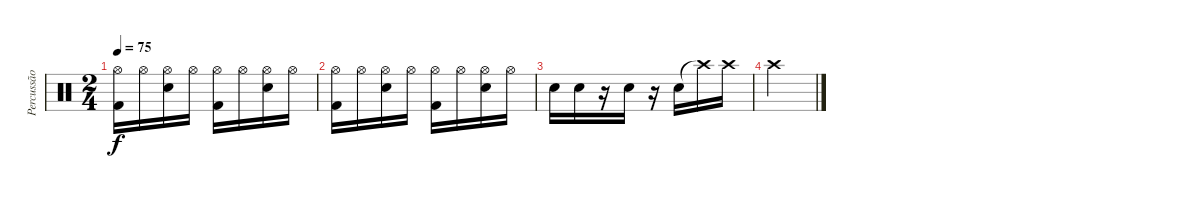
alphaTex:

\track ("Percussão" "Percussão") {instrument percussion}
\staff {score}
\articulation defaults
\ts (2 4)
\tempo 75
\clef neutral
\ks c
("Hi-Hat (open)" "Kick (hit) 2").16{dy f} "Hi-Hat (open)".16 ("Hi-Hat (open)" "Snare (hit) 2").16 "Hi-Hat (open)".16 ("Hi-Hat (open)" "Kick (hit) 2").16 "Hi-Hat (open)".16 ("Hi-Hat (open)" "Snare (hit) 2").16 "Hi-Hat (open)".16 |
("Hi-Hat (open)" "Kick (hit) 2").16 "Hi-Hat (open)".16 ("Hi-Hat (open)" "Snare (hit) 2").16 "Hi-Hat (open)".16 ("Hi-Hat (open)" "Kick (hit) 2").16 "Hi-Hat (open)".16 ("Hi-Hat (open)" "Snare (hit) 2").16 "Hi-Hat (open)".16 |
"Snare (hit) 2".16 "Snare (hit) 2".16 r.16 "Snare (hit) 2".16 r.16 "Snare (hit) 2".16 "Crash high (hit)"{t}.16 "Crash high (hit)".16 |
"Crash high (hit)".2
